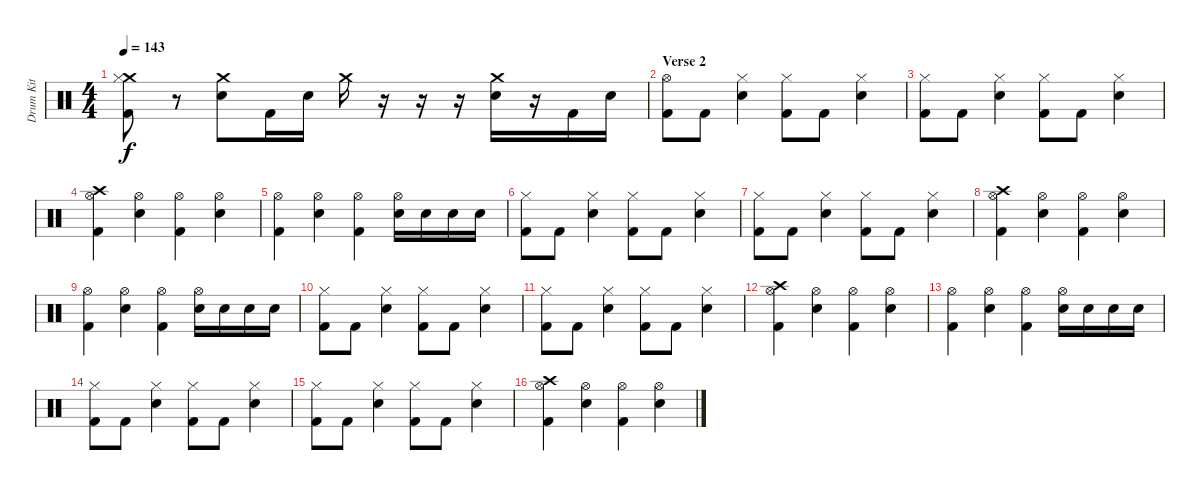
\track ("Drum Kit" "Drum Kit") {instrument percussion}
\staff {score}
\articulation defaults
\ts (4 4)
\tempo 143
\clef neutral
\ks c
("Crash medium (hit)" "Hi-Hat (closed)" "Kick (hit) 2").8{dy f} r.8 ("Crash medium (hit)" "Snare (hit) 2").8 "Kick (hit) 2".16 "Snare (hit) 2".16 "Crash medium (hit)".16 r.16 r.16 r.16 ("Crash medium (hit)" "Snare (hit) 2").16 r.16 "Kick (hit) 2".16 "Snare (hit) 2".16 |
\section ("" "Verse 2")
("Hi-Hat (open)" "Kick (hit) 2").8 "Kick (hit) 2".8 ("Hi-Hat (closed)" "Snare (hit) 2").4 ("Hi-Hat (closed)" "Kick (hit) 2").8 "Kick (hit) 2".8 ("Hi-Hat (closed)" "Snare (hit) 2").4 |
("Hi-Hat (closed)" "Kick (hit) 2").8 "Kick (hit) 2".8 ("Hi-Hat (closed)" "Snare (hit) 2").4 ("Hi-Hat (closed)" "Kick (hit) 2").8 "Kick (hit) 2".8 ("Hi-Hat (closed)" "Snare (hit) 2").4 |
("Hi-Hat (open)" "Crash high (hit)" "Kick (hit) 2").4 ("Hi-Hat (open)" "Snare (hit) 2").4 ("Hi-Hat (open)" "Kick (hit) 2").4 ("Hi-Hat (open)" "Snare (hit) 2").4 |
("Hi-Hat (open)" "Kick (hit) 2").4 ("Hi-Hat (open)" "Snare (hit) 2").4 ("Hi-Hat (open)" "Kick (hit) 2").4 ("Hi-Hat (open)" "Snare (hit) 2").16 "Snare (hit) 2".16 "Snare (hit) 2".16 "Snare (hit) 2".16 |
("Hi-Hat (closed)" "Kick (hit) 2").8 "Kick (hit) 2".8 ("Hi-Hat (closed)" "Snare (hit) 2").4 ("Hi-Hat (closed)" "Kick (hit) 2").8 "Kick (hit) 2".8 ("Hi-Hat (closed)" "Snare (hit) 2").4 |
("Hi-Hat (closed)" "Kick (hit) 2").8 "Kick (hit) 2".8 ("Hi-Hat (closed)" "Snare (hit) 2").4 ("Hi-Hat (closed)" "Kick (hit) 2").8 "Kick (hit) 2".8 ("Hi-Hat (closed)" "Snare (hit) 2").4 |
("Hi-Hat (open)" "Crash high (hit)" "Kick (hit) 2").4 ("Hi-Hat (open)" "Snare (hit) 2").4 ("Hi-Hat (open)" "Kick (hit) 2").4 ("Hi-Hat (open)" "Snare (hit) 2").4 |
("Hi-Hat (open)" "Kick (hit) 2").4 ("Hi-Hat (open)" "Snare (hit) 2").4 ("Hi-Hat (open)" "Kick (hit) 2").4 ("Hi-Hat (open)" "Snare (hit) 2").16 "Snare (hit) 2".16 "Snare (hit) 2".16 "Snare (hit) 2".16 |
("Hi-Hat (closed)" "Kick (hit) 2").8 "Kick (hit) 2".8 ("Hi-Hat (closed)" "Snare (hit) 2").4 ("Hi-Hat (closed)" "Kick (hit) 2").8 "Kick (hit) 2".8 ("Hi-Hat (closed)" "Snare (hit) 2").4 |
("Hi-Hat (closed)" "Kick (hit) 2").8 "Kick (hit) 2".8 ("Hi-Hat (closed)" "Snare (hit) 2").4 ("Hi-Hat (closed)" "Kick (hit) 2").8 "Kick (hit) 2".8 ("Hi-Hat (closed)" "Snare (hit) 2").4 |
("Hi-Hat (open)" "Crash high (hit)" "Kick (hit) 2").4 ("Hi-Hat (open)" "Snare (hit) 2").4 ("Hi-Hat (open)" "Kick (hit) 2").4 ("Hi-Hat (open)" "Snare (hit) 2").4 |
("Hi-Hat (open)" "Kick (hit) 2").4 ("Hi-Hat (open)" "Snare (hit) 2").4 ("Hi-Hat (open)" "Kick (hit) 2").4 ("Hi-Hat (open)" "Snare (hit) 2").16 "Snare (hit) 2".16 "Snare (hit) 2".16 "Snare (hit) 2".16 |
("Hi-Hat (closed)" "Kick (hit) 2").8 "Kick (hit) 2".8 ("Hi-Hat (closed)" "Snare (hit) 2").4 ("Hi-Hat (closed)" "Kick (hit) 2").8 "Kick (hit) 2".8 ("Hi-Hat (closed)" "Snare (hit) 2").4 |
("Hi-Hat (closed)" "Kick (hit) 2").8 "Kick (hit) 2".8 ("Hi-Hat (closed)" "Snare (hit) 2").4 ("Hi-Hat (closed)" "Kick (hit) 2").8 "Kick (hit) 2".8 ("Hi-Hat (closed)" "Snare (hit) 2").4 |
("Hi-Hat (open)" "Crash high (hit)" "Kick (hit) 2").4 ("Hi-Hat (open)" "Snare (hit) 2").4 ("Hi-Hat (open)" "Kick (hit) 2").4 ("Hi-Hat (open)" "Snare (hit) 2").4
